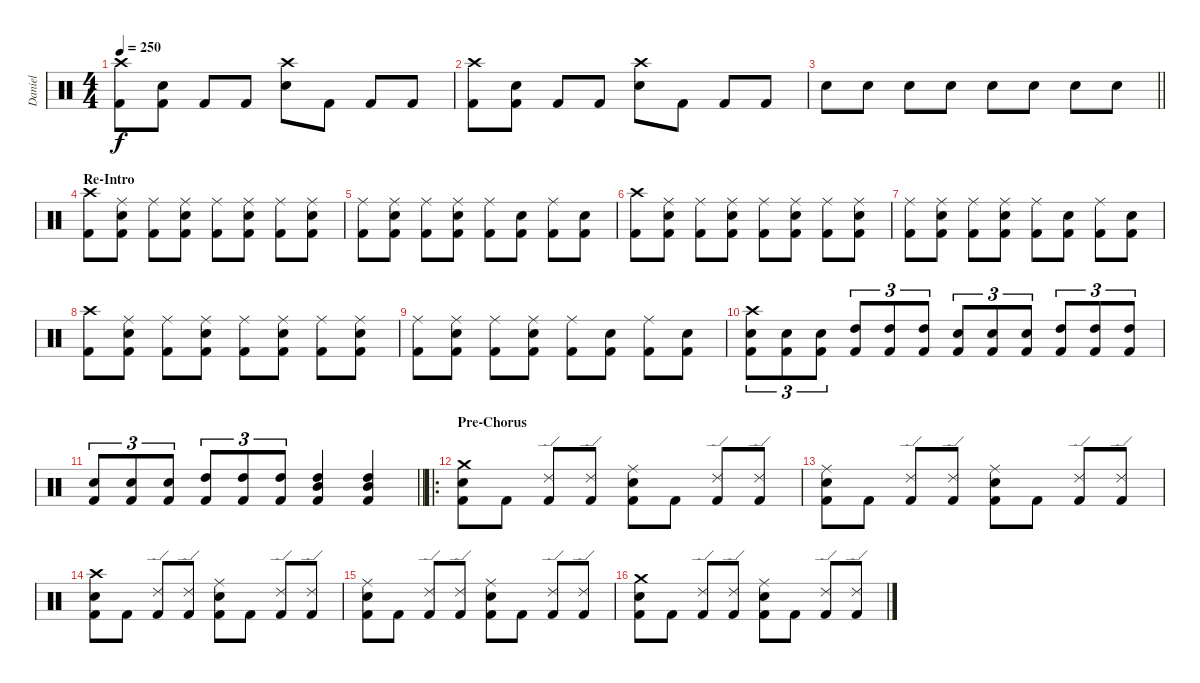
\track ("Daniel" "Daniel") {instrument percussion}
\staff {score}
\articulation defaults
\ts (4 4)
\tempo 250
\clef neutral
\ks c
("Crash high (hit)" "Kick (hit) 2").8{dy f} ("Snare (hit) 2" "Kick (hit) 2").8 "Kick (hit) 2".8 "Kick (hit) 2".8 ("Crash high (hit)" "Snare (hit) 2").8 "Kick (hit) 2".8 "Kick (hit) 2".8 "Kick (hit) 2".8 |
("Crash high (hit)" "Kick (hit) 2").8 ("Snare (hit) 2" "Kick (hit) 2").8 "Kick (hit) 2".8 "Kick (hit) 2".8 ("Crash high (hit)" "Snare (hit) 2").8 "Kick (hit) 2".8 "Kick (hit) 2".8 "Kick (hit) 2".8 |
\barLineRight lightlight "Snare (hit) 2".8 "Snare (hit) 2".8 "Snare (hit) 2".8 "Snare (hit) 2".8 "Snare (hit) 2".8 "Snare (hit) 2".8 "Snare (hit) 2".8 "Snare (hit) 2".8
|
\section ("" "Re-Intro")
("Crash high (hit)" "Kick (hit) 2").8 ("Ride (middle)" "Snare (hit) 2" "Kick (hit) 2").8 ("Ride (middle)" "Kick (hit) 2").8 ("Ride (middle)" "Snare (hit) 2" "Kick (hit) 2").8 ("Ride (middle)" "Kick (hit) 2").8 ("Ride (middle)" "Snare (hit) 2" "Kick (hit) 2").8 ("Ride (middle)" "Kick (hit) 2").8 ("Ride (middle)" "Snare (hit) 2" "Kick (hit) 2").8 |
("Ride (middle)" "Kick (hit) 2").8 ("Ride (middle)" "Snare (hit) 2" "Kick (hit) 2").8 ("Ride (middle)" "Kick (hit) 2").8 ("Ride (middle)" "Snare (hit) 2" "Kick (hit) 2").8 ("Ride (middle)" "Kick (hit) 2").8 ("Snare (hit) 2" "Kick (hit) 2").8 ("Ride (middle)" "Kick (hit) 2").8 ("Snare (hit) 2" "Kick (hit) 2").8 |
("Crash high (hit)" "Kick (hit) 2").8 ("Ride (middle)" "Snare (hit) 2" "Kick (hit) 2").8 ("Ride (middle)" "Kick (hit) 2").8 ("Ride (middle)" "Snare (hit) 2" "Kick (hit) 2").8 ("Ride (middle)" "Kick (hit) 2").8 ("Ride (middle)" "Snare (hit) 2" "Kick (hit) 2").8 ("Ride (middle)" "Kick (hit) 2").8 ("Ride (middle)" "Snare (hit) 2" "Kick (hit) 2").8 |
("Ride (middle)" "Kick (hit) 2").8 ("Ride (middle)" "Snare (hit) 2" "Kick (hit) 2").8 ("Ride (middle)" "Kick (hit) 2").8 ("Ride (middle)" "Snare (hit) 2" "Kick (hit) 2").8 ("Ride (middle)" "Kick (hit) 2").8 ("Snare (hit) 2" "Kick (hit) 2").8 ("Ride (middle)" "Kick (hit) 2").8 ("Snare (hit) 2" "Kick (hit) 2").8 |
("Crash high (hit)" "Kick (hit) 2").8 ("Ride (middle)" "Snare (hit) 2" "Kick (hit) 2").8 ("Ride (middle)" "Kick (hit) 2").8 ("Ride (middle)" "Snare (hit) 2" "Kick (hit) 2").8 ("Ride (middle)" "Kick (hit) 2").8 ("Ride (middle)" "Snare (hit) 2" "Kick (hit) 2").8 ("Ride (middle)" "Kick (hit) 2").8 ("Ride (middle)" "Snare (hit) 2" "Kick (hit) 2").8 |
("Ride (middle)" "Kick (hit) 2").8 ("Ride (middle)" "Snare (hit) 2" "Kick (hit) 2").8 ("Ride (middle)" "Kick (hit) 2").8 ("Ride (middle)" "Snare (hit) 2" "Kick (hit) 2").8 ("Ride (middle)" "Kick (hit) 2").8 ("Snare (hit) 2" "Kick (hit) 2").8 ("Ride (middle)" "Kick (hit) 2").8 ("Snare (hit) 2" "Kick (hit) 2").8 |
("Crash high (hit)" "Snare (hit) 2" "Kick (hit) 2").8{tu (3 2)} ("Snare (hit) 2" "Kick (hit) 2").8{tu (3 2)} ("Snare (hit) 2" "Kick (hit) 2").8{tu (3 2)} ("High Tom (hit)" "Kick (hit) 2").8{tu (3 2)} ("High Tom (hit)" "Kick (hit) 2").8{tu (3 2)} ("High Tom (hit)" "Kick (hit) 2").8{tu (3 2)} ("Snare (hit) 2" "Kick (hit) 2").8{tu (3 2)} ("Snare (hit) 2" "Kick (hit) 2").8{tu (3 2)} ("Snare (hit) 2" "Kick (hit) 2").8{tu (3 2)} ("High Tom (hit)" "Kick (hit) 2").8{tu (3 2)} ("High Tom (hit)" "Kick (hit) 2").8{tu (3 2)} ("High Tom (hit)" "Kick (hit) 2").8{tu (3 2)} |
\barLineRight lightlight
("Snare (hit) 2" "Kick (hit) 2").8{tu (3 2)} ("Snare (hit) 2" "Kick (hit) 2").8{tu (3 2)} ("Snare (hit) 2" "Kick (hit) 2").8{tu (3 2)} ("High Tom (hit)" "Kick (hit) 2").8{tu (3 2)} ("High Tom (hit)" "Kick (hit) 2").8{tu (3 2)} ("High Tom (hit)" "Kick (hit) 2").8{tu (3 2)} ("High Tom (hit)" "Mid Tom (hit)" "Kick (hit) 2").4 ("High Tom (hit)" "Mid Tom (hit)" "Kick (hit) 2").4 |
\ro
\section ("" "Pre-Chorus")
("Crash medium (hit)" "Snare (hit) 2" "Kick (hit) 2").8 "Kick (hit) 2".8 ("Ride (edge) 2" "Kick (hit) 2").8 ("Ride (edge) 2" "Kick (hit) 2").8 ("Ride (middle)" "Snare (hit) 2" "Kick (hit) 2").8 "Kick (hit) 2".8 ("Ride (edge) 2" "Kick (hit) 2").8 ("Ride (edge) 2" "Kick (hit) 2").8 |
("Ride (middle)" "Snare (hit) 2" "Kick (hit) 2").8 "Kick (hit) 2".8 ("Ride (edge) 2" "Kick (hit) 2").8 ("Ride (edge) 2" "Kick (hit) 2").8 ("Ride (middle)" "Snare (hit) 2" "Kick (hit) 2").8 "Kick (hit) 2".8 ("Ride (edge) 2" "Kick (hit) 2").8 ("Ride (edge) 2" "Kick (hit) 2").8 |
("Crash high (hit)" "Snare (hit) 2" "Kick (hit) 2").8 "Kick (hit) 2".8 ("Ride (edge) 2" "Kick (hit) 2").8 ("Ride (edge) 2" "Kick (hit) 2").8 ("Ride (middle)" "Snare (hit) 2" "Kick (hit) 2").8 "Kick (hit) 2".8 ("Ride (edge) 2" "Kick (hit) 2").8 ("Ride (edge) 2" "Kick (hit) 2").8 |
("Ride (middle)" "Snare (hit) 2" "Kick (hit) 2").8 "Kick (hit) 2".8 ("Ride (edge) 2" "Kick (hit) 2").8 ("Ride (edge) 2" "Kick (hit) 2").8 ("Ride (middle)" "Snare (hit) 2" "Kick (hit) 2").8 "Kick (hit) 2".8 ("Ride (edge) 2" "Kick (hit) 2").8 ("Ride (edge) 2" "Kick (hit) 2").8 |
("Crash medium (hit)" "Snare (hit) 2" "Kick (hit) 2").8 "Kick (hit) 2".8 ("Ride (edge) 2" "Kick (hit) 2").8 ("Ride (edge) 2" "Kick (hit) 2").8 ("Ride (middle)" "Snare (hit) 2" "Kick (hit) 2").8 "Kick (hit) 2".8 ("Ride (edge) 2" "Kick (hit) 2").8 ("Ride (edge) 2" "Kick (hit) 2").8
